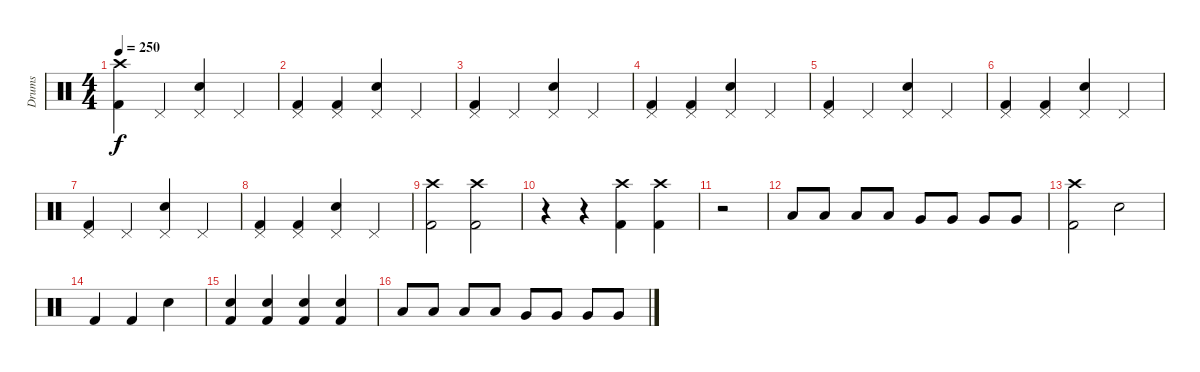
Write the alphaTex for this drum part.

\track ("Drums" "Drums") {instrument percussion}
\staff {score}
\articulation defaults
\ts (4 4)
\tempo 250
\clef neutral
\ks c
("Kick (hit) 2" "Crash high (hit)").4{dy f} "Pedal Hi-Hat (hit)".4 ("Pedal Hi-Hat (hit)" "Electric Snare (hit)").4 "Pedal Hi-Hat (hit)".4 |
("Pedal Hi-Hat (hit)" "Kick (hit) 2").4 ("Pedal Hi-Hat (hit)" "Kick (hit) 2").4 ("Pedal Hi-Hat (hit)" "Electric Snare (hit)").4 "Pedal Hi-Hat (hit)".4 |
("Pedal Hi-Hat (hit)" "Kick (hit) 2").4 "Pedal Hi-Hat (hit)".4 ("Pedal Hi-Hat (hit)" "Electric Snare (hit)").4 "Pedal Hi-Hat (hit)".4 |
("Pedal Hi-Hat (hit)" "Kick (hit) 2").4 ("Pedal Hi-Hat (hit)" "Kick (hit) 2").4 ("Pedal Hi-Hat (hit)" "Electric Snare (hit)").4 "Pedal Hi-Hat (hit)".4 |
("Pedal Hi-Hat (hit)" "Kick (hit) 2").4 "Pedal Hi-Hat (hit)".4 ("Pedal Hi-Hat (hit)" "Electric Snare (hit)").4 "Pedal Hi-Hat (hit)".4 |
("Pedal Hi-Hat (hit)" "Kick (hit) 2").4 ("Pedal Hi-Hat (hit)" "Kick (hit) 2").4 ("Pedal Hi-Hat (hit)" "Electric Snare (hit)").4 "Pedal Hi-Hat (hit)".4 |
("Pedal Hi-Hat (hit)" "Kick (hit) 2").4 "Pedal Hi-Hat (hit)".4 ("Pedal Hi-Hat (hit)" "Electric Snare (hit)").4 "Pedal Hi-Hat (hit)".4 |
("Pedal Hi-Hat (hit)" "Kick (hit) 2").4 ("Pedal Hi-Hat (hit)" "Kick (hit) 2").4 ("Pedal Hi-Hat (hit)" "Electric Snare (hit)").4 "Pedal Hi-Hat (hit)".4 |
("Kick (hit) 2" "Crash high (hit)").2 ("Kick (hit) 2" "Crash high (hit)").2 |
r.4 r.4 ("Kick (hit) 2" "Crash high (hit)").4 ("Kick (hit) 2" "Crash high (hit)").4 |
r.2 |
"Low Tom (hit)".8 "Low Tom (hit)".8 "Low Tom (hit)".8 "Low Tom (hit)".8 "Very Low Tom (hit)".8 "Very Low Tom (hit)".8 "Very Low Tom (hit)".8 "Very Low Tom (hit)".8 |
("Kick (hit) 2" "Crash high (hit)").2 "Electric Snare (hit)".2 |
"Kick (hit) 2".4 "Kick (hit) 2".4 "Electric Snare (hit)".4 |
("Kick (hit) 2" "Electric Snare (hit)").4 ("Kick (hit) 2" "Electric Snare (hit)").4 ("Kick (hit) 2" "Electric Snare (hit)").4 ("Kick (hit) 2" "Electric Snare (hit)").4 |
"Low Tom (hit)".8 "Low Tom (hit)".8 "Low Tom (hit)".8 "Low Tom (hit)".8 "Very Low Tom (hit)".8 "Very Low Tom (hit)".8 "Very Low Tom (hit)".8 "Very Low Tom (hit)".8
